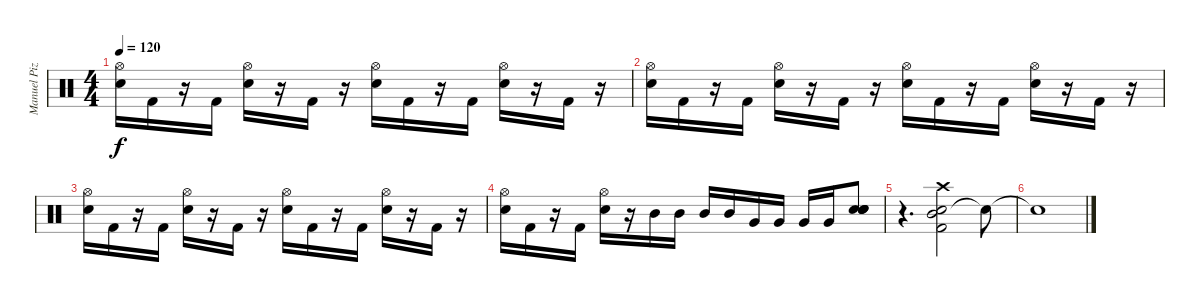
\track ("Manuel Pizarro" "Manuel Piz") {instrument percussion}
\staff {score}
\articulation defaults
\ts (4 4)
\tempo 120
\clef neutral
\ks c
("Electric Snare (hit)" "Hi-Hat (open)").16{dy f} "Kick (hit) 2".16 r.16 "Kick (hit) 2".16 ("Electric Snare (hit)" "Hi-Hat (open)").16 r.16 "Kick (hit) 2".16 r.16 ("Electric Snare (hit)" "Hi-Hat (open)").16 "Kick (hit) 2".16 r.16 "Kick (hit) 2".16 ("Electric Snare (hit)" "Hi-Hat (open)").16 r.16 "Kick (hit) 2".16 r.16 |
("Electric Snare (hit)" "Hi-Hat (open)").16 "Kick (hit) 2".16 r.16 "Kick (hit) 2".16 ("Electric Snare (hit)" "Hi-Hat (open)").16 r.16 "Kick (hit) 2".16 r.16 ("Electric Snare (hit)" "Hi-Hat (open)").16 "Kick (hit) 2".16 r.16 "Kick (hit) 2".16 ("Electric Snare (hit)" "Hi-Hat (open)").16 r.16 "Kick (hit) 2".16 r.16 |
("Electric Snare (hit)" "Hi-Hat (open)").16 "Kick (hit) 2".16 r.16 "Kick (hit) 2".16 ("Electric Snare (hit)" "Hi-Hat (open)").16 r.16 "Kick (hit) 2".16 r.16 ("Electric Snare (hit)" "Hi-Hat (open)").16 "Kick (hit) 2".16 r.16 "Kick (hit) 2".16 ("Electric Snare (hit)" "Hi-Hat (open)").16 r.16 "Kick (hit) 2".16 r.16 |
("Electric Snare (hit)" "Hi-Hat (open)").16 "Kick (hit) 2".16 r.16 "Kick (hit) 2".16 ("Electric Snare (hit)" "Hi-Hat (open)").16 r.16 "Mid Tom (hit)".16 "Mid Tom (hit)".16 "Mid Tom (hit)".16 "Mid Tom (hit)".16 "Very Low Tom (hit)".16 "Very Low Tom (hit)".16 "Very Low Tom (hit)".16 "Very Low Tom (hit)".16 ("Electric Snare (hit)" "Electric Snare (hit)" "Electric Snare (hit)" "Electric Snare (hit)").8 |
r.4{d} ("Mid Tom (hit)" "Crash high (hit)" "Electric Snare (hit)" "Kick (hit) 2").2 "Snare (hit)"{t}.8 |
"Snare (hit)"{t}.1
